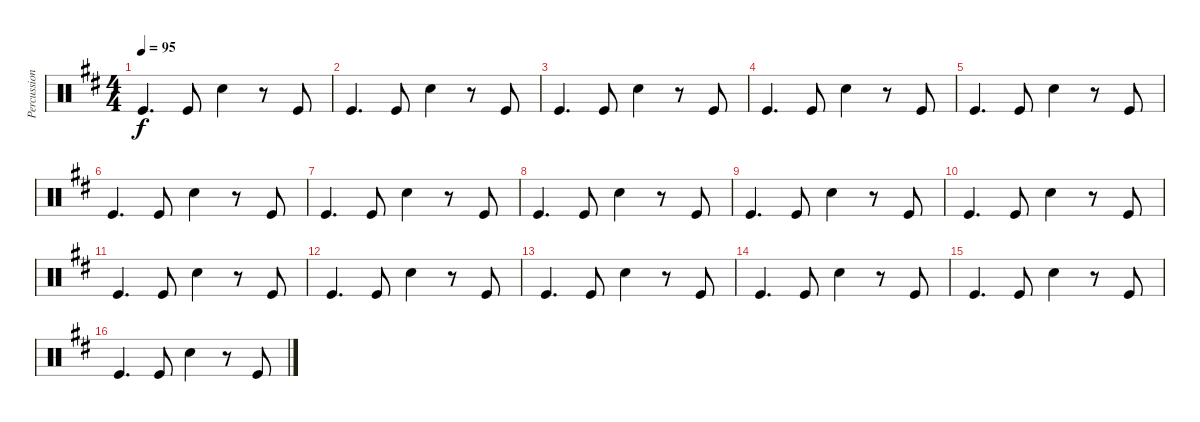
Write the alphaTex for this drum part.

\track ("Percussion" "Percussion") {instrument percussion}
\staff {score}
\articulation defaults
\ts (4 4)
\tempo 95
\clef neutral
\ks d "Kick (hit)".4{d dy f} "Kick (hit)".8 "Snare (hit) 2".4
r.8 "Kick (hit)".8 |
"Kick (hit)".4{d} "Kick (hit)".8 "Snare (hit) 2".4 r.8 "Kick (hit)".8 |
"Kick (hit)".4{d} "Kick (hit)".8 "Snare (hit) 2".4 r.8 "Kick (hit)".8 |
"Kick (hit)".4{d} "Kick (hit)".8 "Snare (hit) 2".4 r.8 "Kick (hit)".8 |
"Kick (hit)".4{d} "Kick (hit)".8 "Snare (hit) 2".4 r.8 "Kick (hit)".8 |
"Kick (hit)".4{d} "Kick (hit)".8 "Snare (hit) 2".4 r.8 "Kick (hit)".8 |
"Kick (hit)".4{d} "Kick (hit)".8 "Snare (hit) 2".4 r.8 "Kick (hit)".8 |
"Kick (hit)".4{d} "Kick (hit)".8 "Snare (hit) 2".4 r.8 "Kick (hit)".8 |
"Kick (hit)".4{d} "Kick (hit)".8 "Snare (hit) 2".4 r.8 "Kick (hit)".8 |
"Kick (hit)".4{d} "Kick (hit)".8 "Snare (hit) 2".4 r.8 "Kick (hit)".8 |
"Kick (hit)".4{d} "Kick (hit)".8 "Snare (hit) 2".4 r.8 "Kick (hit)".8 |
"Kick (hit)".4{d} "Kick (hit)".8 "Snare (hit) 2".4 r.8 "Kick (hit)".8 |
"Kick (hit)".4{d} "Kick (hit)".8 "Snare (hit) 2".4 r.8 "Kick (hit)".8 |
"Kick (hit)".4{d} "Kick (hit)".8 "Snare (hit) 2".4 r.8 "Kick (hit)".8 |
"Kick (hit)".4{d} "Kick (hit)".8 "Snare (hit) 2".4 r.8 "Kick (hit)".8 |
"Kick (hit)".4{d} "Kick (hit)".8 "Snare (hit) 2".4 r.8 "Kick (hit)".8
